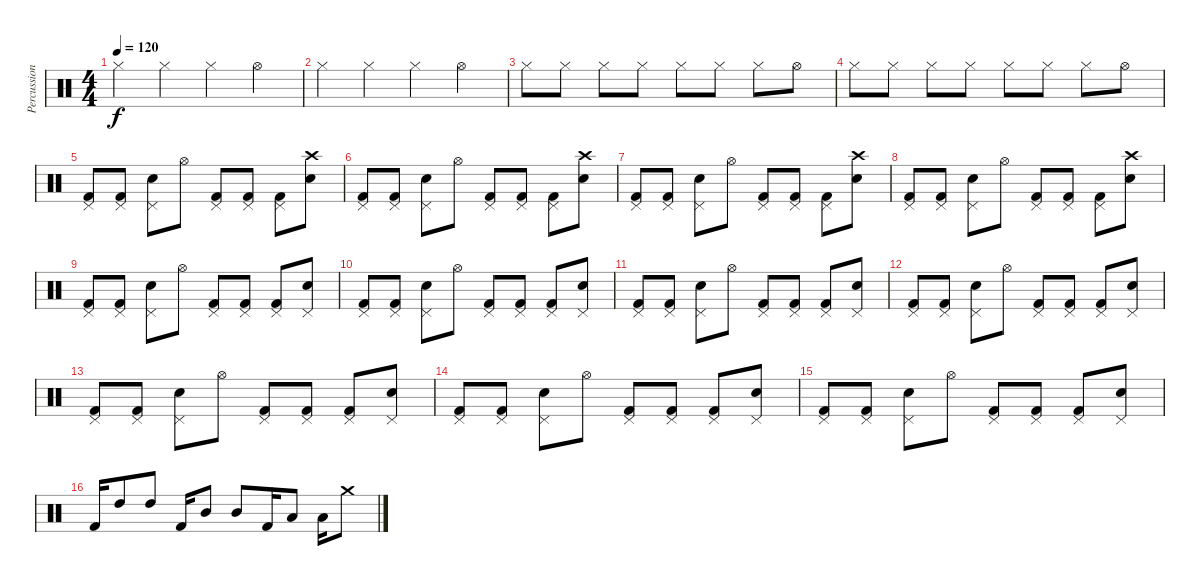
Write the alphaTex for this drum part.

\track ("Percussion" "Percussion") {instrument percussion}
\staff {score}
\articulation defaults
\ts (4 4)
\tempo 120
\clef neutral
\ks c "Hi-Hat (closed)".4{dy f} "Hi-Hat (closed)".4 "Hi-Hat (closed)".4 "Hi-Hat (open)".4
|
"Hi-Hat (closed)".4 "Hi-Hat (closed)".4 "Hi-Hat (closed)".4 "Hi-Hat (open)".4 |
"Hi-Hat (closed)".8 "Hi-Hat (closed)".8 "Hi-Hat (closed)".8 "Hi-Hat (closed)".8 "Hi-Hat (closed)".8 "Hi-Hat (closed)".8 "Hi-Hat (closed)".8 "Hi-Hat (open)".8 |
"Hi-Hat (closed)".8 "Hi-Hat (closed)".8 "Hi-Hat (closed)".8 "Hi-Hat (closed)".8 "Hi-Hat (closed)".8 "Hi-Hat (closed)".8 "Hi-Hat (closed)".8 "Hi-Hat (open)".8 |
("Pedal Hi-Hat (hit)" "Kick (hit) 2").8 ("Pedal Hi-Hat (hit)" "Kick (hit) 2").8 ("Pedal Hi-Hat (hit)" "Electric Snare (hit)").8 "Hi-Hat (open)".8 ("Pedal Hi-Hat (hit)" "Kick (hit) 2").8 ("Pedal Hi-Hat (hit)" "Kick (hit) 2").8 ("Pedal Hi-Hat (hit)" "Kick (hit) 2").8 ("Crash high (hit)" "Electric Snare (hit)").8 |
("Pedal Hi-Hat (hit)" "Kick (hit) 2").8 ("Pedal Hi-Hat (hit)" "Kick (hit) 2").8 ("Pedal Hi-Hat (hit)" "Electric Snare (hit)").8 "Hi-Hat (open)".8 ("Pedal Hi-Hat (hit)" "Kick (hit) 2").8 ("Pedal Hi-Hat (hit)" "Kick (hit) 2").8 ("Pedal Hi-Hat (hit)" "Kick (hit) 2").8 ("Crash high (hit)" "Electric Snare (hit)").8 |
("Pedal Hi-Hat (hit)" "Kick (hit) 2").8 ("Pedal Hi-Hat (hit)" "Kick (hit) 2").8 ("Pedal Hi-Hat (hit)" "Electric Snare (hit)").8 "Hi-Hat (open)".8 ("Pedal Hi-Hat (hit)" "Kick (hit) 2").8 ("Pedal Hi-Hat (hit)" "Kick (hit) 2").8 ("Pedal Hi-Hat (hit)" "Kick (hit) 2").8 ("Crash high (hit)" "Electric Snare (hit)").8 |
("Pedal Hi-Hat (hit)" "Kick (hit) 2").8 ("Pedal Hi-Hat (hit)" "Kick (hit) 2").8 ("Pedal Hi-Hat (hit)" "Electric Snare (hit)").8 "Hi-Hat (open)".8 ("Pedal Hi-Hat (hit)" "Kick (hit) 2").8 ("Pedal Hi-Hat (hit)" "Kick (hit) 2").8 ("Pedal Hi-Hat (hit)" "Kick (hit) 2").8 ("Crash high (hit)" "Electric Snare (hit)").8 |
("Pedal Hi-Hat (hit)" "Kick (hit) 2").8 ("Pedal Hi-Hat (hit)" "Kick (hit) 2").8 ("Pedal Hi-Hat (hit)" "Electric Snare (hit)").8 "Hi-Hat (open)".8 ("Pedal Hi-Hat (hit)" "Kick (hit) 2").8 ("Pedal Hi-Hat (hit)" "Kick (hit) 2").8 ("Pedal Hi-Hat (hit)" "Kick (hit) 2").8 ("Pedal Hi-Hat (hit)" "Electric Snare (hit)").8 |
("Pedal Hi-Hat (hit)" "Kick (hit) 2").8 ("Pedal Hi-Hat (hit)" "Kick (hit) 2").8 ("Pedal Hi-Hat (hit)" "Electric Snare (hit)").8 "Hi-Hat (open)".8 ("Pedal Hi-Hat (hit)" "Kick (hit) 2").8 ("Pedal Hi-Hat (hit)" "Kick (hit) 2").8 ("Pedal Hi-Hat (hit)" "Kick (hit) 2").8 ("Pedal Hi-Hat (hit)" "Electric Snare (hit)").8 |
("Pedal Hi-Hat (hit)" "Kick (hit) 2").8 ("Pedal Hi-Hat (hit)" "Kick (hit) 2").8 ("Pedal Hi-Hat (hit)" "Electric Snare (hit)").8 "Hi-Hat (open)".8 ("Pedal Hi-Hat (hit)" "Kick (hit) 2").8 ("Pedal Hi-Hat (hit)" "Kick (hit) 2").8 ("Pedal Hi-Hat (hit)" "Kick (hit) 2").8 ("Pedal Hi-Hat (hit)" "Electric Snare (hit)").8 |
("Pedal Hi-Hat (hit)" "Kick (hit) 2").8 ("Pedal Hi-Hat (hit)" "Kick (hit) 2").8 ("Pedal Hi-Hat (hit)" "Electric Snare (hit)").8 "Hi-Hat (open)".8 ("Pedal Hi-Hat (hit)" "Kick (hit) 2").8 ("Pedal Hi-Hat (hit)" "Kick (hit) 2").8 ("Pedal Hi-Hat (hit)" "Kick (hit) 2").8 ("Pedal Hi-Hat (hit)" "Electric Snare (hit)").8 |
("Pedal Hi-Hat (hit)" "Kick (hit) 2").8 ("Pedal Hi-Hat (hit)" "Kick (hit) 2").8 ("Pedal Hi-Hat (hit)" "Electric Snare (hit)").8 "Hi-Hat (open)".8 ("Pedal Hi-Hat (hit)" "Kick (hit) 2").8 ("Pedal Hi-Hat (hit)" "Kick (hit) 2").8 ("Pedal Hi-Hat (hit)" "Kick (hit) 2").8 ("Pedal Hi-Hat (hit)" "Electric Snare (hit)").8 |
("Pedal Hi-Hat (hit)" "Kick (hit) 2").8 ("Pedal Hi-Hat (hit)" "Kick (hit) 2").8 ("Pedal Hi-Hat (hit)" "Electric Snare (hit)").8 "Hi-Hat (open)".8 ("Pedal Hi-Hat (hit)" "Kick (hit) 2").8 ("Pedal Hi-Hat (hit)" "Kick (hit) 2").8 ("Pedal Hi-Hat (hit)" "Kick (hit) 2").8 ("Pedal Hi-Hat (hit)" "Electric Snare (hit)").8 |
("Pedal Hi-Hat (hit)" "Kick (hit) 2").8 ("Pedal Hi-Hat (hit)" "Kick (hit) 2").8 ("Pedal Hi-Hat (hit)" "Electric Snare (hit)").8 "Hi-Hat (open)".8 ("Pedal Hi-Hat (hit)" "Kick (hit) 2").8 ("Pedal Hi-Hat (hit)" "Kick (hit) 2").8 ("Pedal Hi-Hat (hit)" "Kick (hit) 2").8 ("Pedal Hi-Hat (hit)" "Electric Snare (hit)").8 |
"Kick (hit) 2".16 "High Tom (hit)".8 "High Tom (hit)".8 "Kick (hit) 2".16 "Mid Tom (hit)".8 "Mid Tom (hit)".8 "Kick (hit) 2".16 "Low Tom (hit)".8 "Low Tom (hit)".16 "Crash medium (hit)".8
